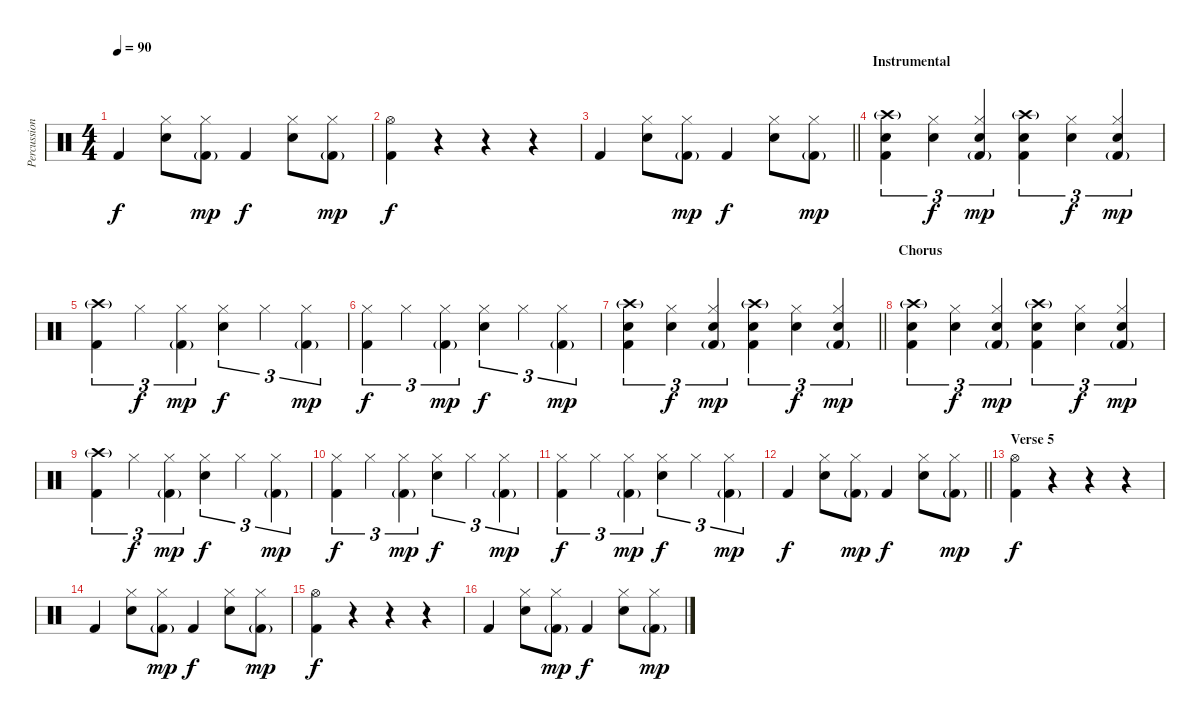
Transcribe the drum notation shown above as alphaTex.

\track ("Percussion" "Percussion") {instrument percussion}
\staff {score}
\articulation defaults
\ts (4 4)
\tempo 90
\clef neutral
\ks c "Kick (hit) 2".4{dy f}
("Hi-Hat (closed)" "Snare (hit) 2").8 ("Hi-Hat (closed)" "Kick (hit) 2"{g}).8{dy mp} "Kick (hit) 2".4{dy f} ("Hi-Hat (closed)" "Snare (hit) 2").8 ("Hi-Hat (closed)" "Kick (hit) 2"{g}).8{dy mp} |
("Hi-Hat (open)" "Kick (hit) 2").4{dy f} r.4 r.4 r.4 |
\barLineRight lightlight "Kick (hit) 2".4
("Hi-Hat (closed)" "Snare (hit) 2").8 ("Hi-Hat (closed)" "Kick (hit) 2"{g}).8{dy mp} "Kick (hit) 2".4{dy f} ("Hi-Hat (closed)" "Snare (hit) 2").8 ("Hi-Hat (closed)" "Kick (hit) 2"{g}).8{dy mp} |
\section ("" "Instrumental")
("Crash high (hit)"{g} "Snare (hit) 2" "Kick (hit) 2").4{tu (3 2)} ("Hi-Hat (closed)" "Snare (hit) 2").4{tu (3 2) dy f} ("Hi-Hat (closed)" "Snare (hit) 2" "Kick (hit) 2"{g}).4{tu (3 2) dy mp} ("Crash high (hit)"{g} "Snare (hit) 2" "Kick (hit) 2").4{tu (3 2)} ("Hi-Hat (closed)" "Snare (hit) 2").4{tu (3 2) dy f} ("Hi-Hat (closed)" "Snare (hit) 2" "Kick (hit) 2"{g}).4{tu (3 2) dy mp} |
("Crash high (hit)"{g} "Kick (hit) 2").4{tu (3 2)} "Hi-Hat (closed)".4{tu (3 2) dy f} ("Hi-Hat (closed)" "Kick (hit) 2"{g}).4{tu (3 2) dy mp} ("Hi-Hat (closed)" "Snare (hit) 2").4{tu (3 2) dy f} "Hi-Hat (closed)".4{tu (3 2)} ("Hi-Hat (closed)" "Kick (hit) 2"{g}).4{tu (3 2) dy mp} |
("Hi-Hat (closed)" "Kick (hit) 2").4{tu (3 2) dy f} "Hi-Hat (closed)".4{tu (3 2)} ("Hi-Hat (closed)" "Kick (hit) 2"{g}).4{tu (3 2) dy mp} ("Hi-Hat (closed)" "Snare (hit) 2").4{tu (3 2) dy f} "Hi-Hat (closed)".4{tu (3 2)} ("Hi-Hat (closed)" "Kick (hit) 2"{g}).4{tu (3 2) dy mp} |
\barLineRight lightlight
("Crash high (hit)"{g} "Snare (hit) 2" "Kick (hit) 2").4{tu (3 2)} ("Hi-Hat (closed)" "Snare (hit) 2").4{tu (3 2) dy f} ("Hi-Hat (closed)" "Snare (hit) 2" "Kick (hit) 2"{g}).4{tu (3 2) dy mp} ("Crash high (hit)"{g} "Snare (hit) 2" "Kick (hit) 2").4{tu (3 2)} ("Hi-Hat (closed)" "Snare (hit) 2").4{tu (3 2) dy f} ("Hi-Hat (closed)" "Snare (hit) 2" "Kick (hit) 2"{g}).4{tu (3 2) dy mp} |
\section ("" "Chorus")
("Crash high (hit)"{g} "Snare (hit) 2" "Kick (hit) 2").4{tu (3 2)} ("Hi-Hat (closed)" "Snare (hit) 2").4{tu (3 2) dy f} ("Hi-Hat (closed)" "Snare (hit) 2" "Kick (hit) 2"{g}).4{tu (3 2) dy mp} ("Crash high (hit)"{g} "Snare (hit) 2" "Kick (hit) 2").4{tu (3 2)} ("Hi-Hat (closed)" "Snare (hit) 2").4{tu (3 2) dy f} ("Hi-Hat (closed)" "Snare (hit) 2" "Kick (hit) 2"{g}).4{tu (3 2) dy mp} |
("Crash high (hit)"{g} "Kick (hit) 2").4{tu (3 2)} "Hi-Hat (closed)".4{tu (3 2) dy f} ("Hi-Hat (closed)" "Kick (hit) 2"{g}).4{tu (3 2) dy mp} ("Hi-Hat (closed)" "Snare (hit) 2").4{tu (3 2) dy f} "Hi-Hat (closed)".4{tu (3 2)} ("Hi-Hat (closed)" "Kick (hit) 2"{g}).4{tu (3 2) dy mp} |
("Hi-Hat (closed)" "Kick (hit) 2").4{tu (3 2) dy f} "Hi-Hat (closed)".4{tu (3 2)} ("Hi-Hat (closed)" "Kick (hit) 2"{g}).4{tu (3 2) dy mp} ("Hi-Hat (closed)" "Snare (hit) 2").4{tu (3 2) dy f} "Hi-Hat (closed)".4{tu (3 2)} ("Hi-Hat (closed)" "Kick (hit) 2"{g}).4{tu (3 2) dy mp} |
("Hi-Hat (closed)" "Kick (hit) 2").4{tu (3 2) dy f} "Hi-Hat (closed)".4{tu (3 2)} ("Hi-Hat (closed)" "Kick (hit) 2"{g}).4{tu (3 2) dy mp} ("Hi-Hat (closed)" "Snare (hit) 2").4{tu (3 2) dy f} "Hi-Hat (closed)".4{tu (3 2)} ("Hi-Hat (closed)" "Kick (hit) 2"{g}).4{tu (3 2) dy mp} |
\barLineRight lightlight "Kick (hit) 2".4{dy f}
("Hi-Hat (closed)" "Snare (hit) 2").8 ("Hi-Hat (closed)" "Kick (hit) 2"{g}).8{dy mp} "Kick (hit) 2".4{dy f} ("Hi-Hat (closed)" "Snare (hit) 2").8 ("Hi-Hat (closed)" "Kick (hit) 2"{g}).8{dy mp} |
\section ("" "Verse 5")
("Hi-Hat (open)" "Kick (hit) 2").4{dy f} r.4 r.4 r.4 |
"Kick (hit) 2".4 ("Hi-Hat (closed)" "Snare (hit) 2").8 ("Hi-Hat (closed)" "Kick (hit) 2"{g}).8{dy mp} "Kick (hit) 2".4{dy f} ("Hi-Hat (closed)" "Snare (hit) 2").8 ("Hi-Hat (closed)" "Kick (hit) 2"{g}).8{dy mp} |
("Hi-Hat (open)" "Kick (hit) 2").4{dy f} r.4 r.4 r.4 |
"Kick (hit) 2".4 ("Hi-Hat (closed)" "Snare (hit) 2").8 ("Hi-Hat (closed)" "Kick (hit) 2"{g}).8{dy mp} "Kick (hit) 2".4{dy f} ("Hi-Hat (closed)" "Snare (hit) 2").8 ("Hi-Hat (closed)" "Kick (hit) 2"{g}).8{dy mp}
